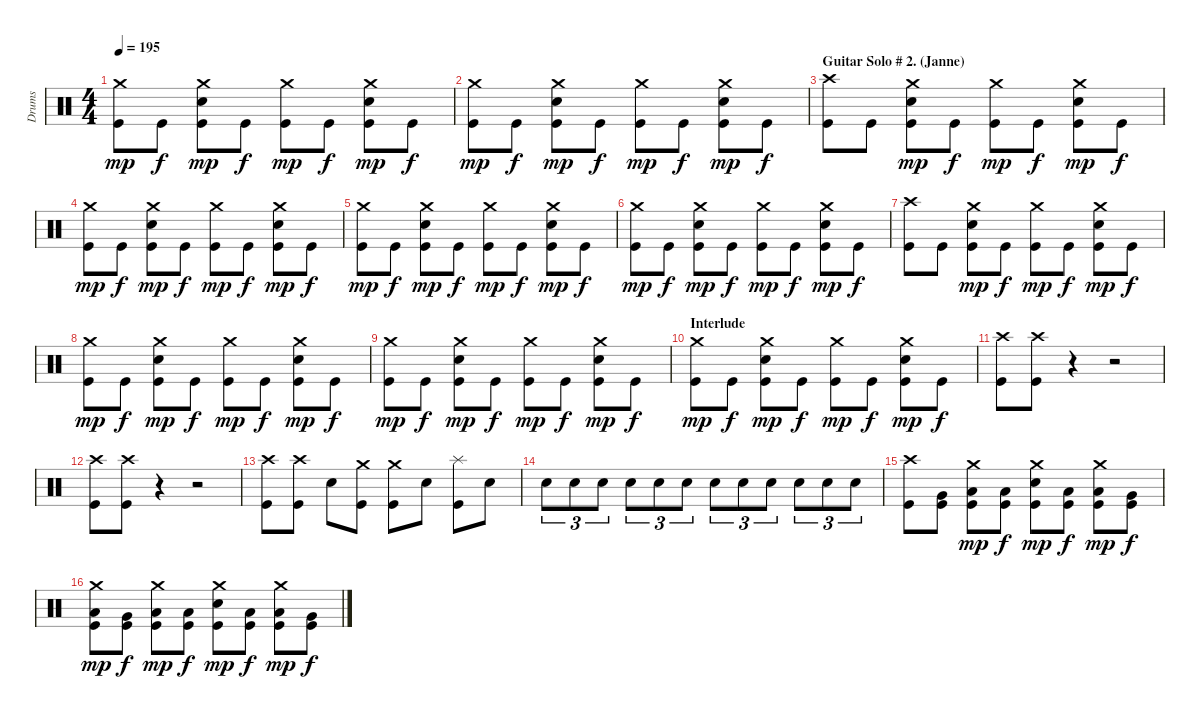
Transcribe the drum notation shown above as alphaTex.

\track ("Drums" "Drums") {instrument percussion}
\staff {score}
\articulation defaults
\ts (4 4)
\tempo 195
\clef neutral
\ks c
("Crash medium (hit)" "Kick (hit)").8{dy mp} "Kick (hit)".8{dy f} ("Crash medium (hit)" "Electric Snare (hit)" "Kick (hit)").8{dy mp} "Kick (hit)".8{dy f} ("Crash medium (hit)" "Kick (hit)").8{dy mp} "Kick (hit)".8{dy f} ("Crash medium (hit)" "Electric Snare (hit)" "Kick (hit)").8{dy mp} "Kick (hit)".8{dy f} |
("Crash medium (hit)" "Kick (hit)").8{dy mp} "Kick (hit)".8{dy f} ("Crash medium (hit)" "Electric Snare (hit)" "Kick (hit)").8{dy mp} "Kick (hit)".8{dy f} ("Crash medium (hit)" "Kick (hit)").8{dy mp} "Kick (hit)".8{dy f} ("Crash medium (hit)" "Electric Snare (hit)" "Kick (hit)").8{dy mp} "Kick (hit)".8{dy f} |
\section ("" "Guitar Solo # 2. (Janne)")
("Crash high (hit)" "Kick (hit)").8 "Kick (hit)".8 ("Crash medium (hit)" "Electric Snare (hit)" "Kick (hit)").8{dy mp} "Kick (hit)".8{dy f} ("Crash medium (hit)" "Kick (hit)").8{dy mp} "Kick (hit)".8{dy f} ("Crash medium (hit)" "Electric Snare (hit)" "Kick (hit)").8{dy mp} "Kick (hit)".8{dy f} |
("Crash medium (hit)" "Kick (hit)").8{dy mp} "Kick (hit)".8{dy f} ("Crash medium (hit)" "Electric Snare (hit)" "Kick (hit)").8{dy mp} "Kick (hit)".8{dy f} ("Crash medium (hit)" "Kick (hit)").8{dy mp} "Kick (hit)".8{dy f} ("Crash medium (hit)" "Electric Snare (hit)" "Kick (hit)").8{dy mp} "Kick (hit)".8{dy f} |
("Crash medium (hit)" "Kick (hit)").8{dy mp} "Kick (hit)".8{dy f} ("Crash medium (hit)" "Electric Snare (hit)" "Kick (hit)").8{dy mp} "Kick (hit)".8{dy f} ("Crash medium (hit)" "Kick (hit)").8{dy mp} "Kick (hit)".8{dy f} ("Crash medium (hit)" "Electric Snare (hit)" "Kick (hit)").8{dy mp} "Kick (hit)".8{dy f} |
("Crash medium (hit)" "Kick (hit)").8{dy mp} "Kick (hit)".8{dy f} ("Crash medium (hit)" "Electric Snare (hit)" "Kick (hit)").8{dy mp} "Kick (hit)".8{dy f} ("Crash medium (hit)" "Kick (hit)").8{dy mp} "Kick (hit)".8{dy f} ("Crash medium (hit)" "Electric Snare (hit)" "Kick (hit)").8{dy mp} "Kick (hit)".8{dy f} |
("Crash high (hit)" "Kick (hit)").8 "Kick (hit)".8 ("Crash medium (hit)" "Electric Snare (hit)" "Kick (hit)").8{dy mp} "Kick (hit)".8{dy f} ("Crash medium (hit)" "Kick (hit)").8{dy mp} "Kick (hit)".8{dy f} ("Crash medium (hit)" "Electric Snare (hit)" "Kick (hit)").8{dy mp} "Kick (hit)".8{dy f} |
("Crash medium (hit)" "Kick (hit)").8{dy mp} "Kick (hit)".8{dy f} ("Crash medium (hit)" "Electric Snare (hit)" "Kick (hit)").8{dy mp} "Kick (hit)".8{dy f} ("Crash medium (hit)" "Kick (hit)").8{dy mp} "Kick (hit)".8{dy f} ("Crash medium (hit)" "Electric Snare (hit)" "Kick (hit)").8{dy mp} "Kick (hit)".8{dy f} |
("Crash medium (hit)" "Kick (hit)").8{dy mp} "Kick (hit)".8{dy f} ("Crash medium (hit)" "Electric Snare (hit)" "Kick (hit)").8{dy mp} "Kick (hit)".8{dy f} ("Crash medium (hit)" "Kick (hit)").8{dy mp} "Kick (hit)".8{dy f} ("Crash medium (hit)" "Electric Snare (hit)" "Kick (hit)").8{dy mp} "Kick (hit)".8{dy f} |
\section ("" "Interlude")
("Crash medium (hit)" "Kick (hit)").8{dy mp} "Kick (hit)".8{dy f} ("Crash medium (hit)" "Electric Snare (hit)" "Kick (hit)").8{dy mp} "Kick (hit)".8{dy f} ("Crash medium (hit)" "Kick (hit)").8{dy mp} "Kick (hit)".8{dy f} ("Crash medium (hit)" "Electric Snare (hit)" "Kick (hit)").8{dy mp} "Kick (hit)".8{dy f} |
("Crash high (hit)" "Kick (hit)").8 ("Crash high (hit)" "Kick (hit)").8 r.4 r.2 |
("Crash high (hit)" "Kick (hit)").8 ("Crash high (hit)" "Kick (hit)").8 r.4 r.2 |
("Crash high (hit)" "Kick (hit)").8 ("Crash high (hit)" "Kick (hit)").8 "Electric Snare (hit)".8 ("Crash medium (hit)" "Kick (hit)").8 ("Crash medium (hit)" "Kick (hit)").8 "Electric Snare (hit)".8 ("Splash (hit)" "Kick (hit)").8 "Electric Snare (hit)".8 |
"Electric Snare (hit)".8{tu (3 2)} "Electric Snare (hit)".8{tu (3 2)} "Electric Snare (hit)".8{tu (3 2)} "Electric Snare (hit)".8{tu (3 2)} "Electric Snare (hit)".8{tu (3 2)} "Electric Snare (hit)".8{tu (3 2)} "Electric Snare (hit)".8{tu (3 2)} "Electric Snare (hit)".8{tu (3 2)} "Electric Snare (hit)".8{tu (3 2)} "Electric Snare (hit)".8{tu (3 2)} "Electric Snare (hit)".8{tu (3 2)} "Electric Snare (hit)".8{tu (3 2)} |
("Crash high (hit)" "Kick (hit)").8 ("Very Low Tom (hit)" "Kick (hit)").8 ("Crash medium (hit)" "Low Floor Tom (hit)" "Kick (hit)").8{dy mp} ("Low Tom (hit)" "Kick (hit)").8{dy f} ("Crash medium (hit)" "Electric Snare (hit)" "Kick (hit)").8{dy mp} ("Low Tom (hit)" "Kick (hit)").8{dy f} ("Crash medium (hit)" "Low Floor Tom (hit)" "Kick (hit)").8{dy mp} ("Very Low Tom (hit)" "Kick (hit)").8{dy f} |
("Crash medium (hit)" "Low Tom (hit)" "Kick (hit)").8{dy mp} ("Very Low Tom (hit)" "Kick (hit)").8{dy f} ("Crash medium (hit)" "Low Floor Tom (hit)" "Kick (hit)").8{dy mp} ("Low Tom (hit)" "Kick (hit)").8{dy f} ("Crash medium (hit)" "Electric Snare (hit)" "Kick (hit)").8{dy mp} ("Low Tom (hit)" "Kick (hit)").8{dy f} ("Crash medium (hit)" "Low Floor Tom (hit)" "Kick (hit)").8{dy mp} ("Very Low Tom (hit)" "Kick (hit)").8{dy f}
